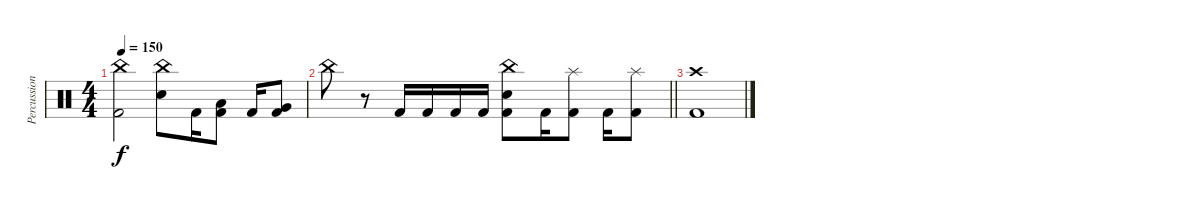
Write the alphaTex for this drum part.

\track ("Percussioni" "Percussion") {instrument percussion}
\staff {score}
\articulation defaults
\ts (4 4)
\tempo 150
\clef neutral
\ks c
("China (hit)" "Kick (hit) 2").2{dy f} ("Electric Snare (hit)" "China (hit)").8 "Kick (hit) 2".16 ("Low Tom (hit)" "Kick (hit) 2").8 "Kick (hit) 2".16 ("Very Low Tom (hit)" "Kick (hit) 2").8 |
\barLineRight lightlight "China (hit)".8
r.8 "Kick (hit) 2".16 "Kick (hit) 2".16 "Kick (hit) 2".16 "Kick (hit) 2".16 ("China (hit)" "Electric Snare (hit)" "Kick (hit) 2").8 "Kick (hit) 2".16 ("Splash (hit)" "Kick (hit) 2").8 "Kick (hit) 2".16 ("Splash (hit)" "Kick (hit) 2").8 |
("Kick (hit) 2" "Crash high (hit)").1
